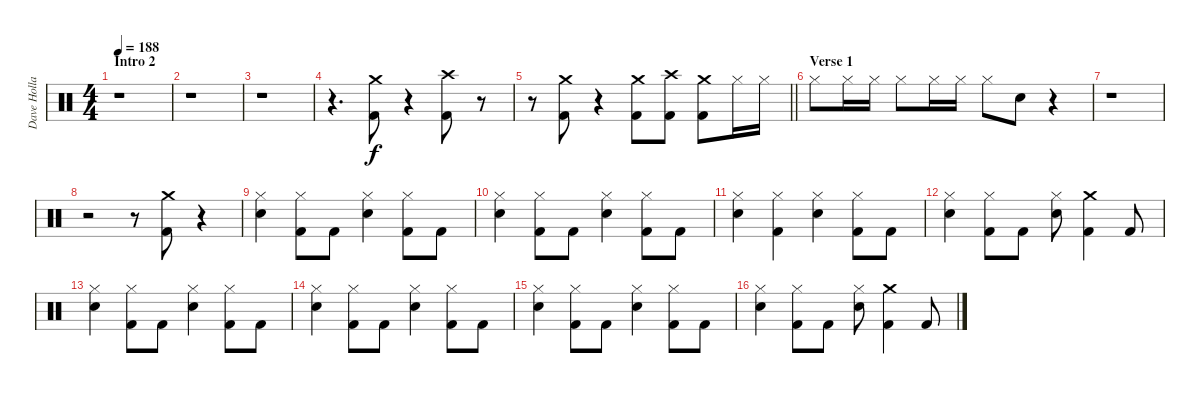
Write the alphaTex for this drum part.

\track ("Dave Holland" "Dave Holla") {instrument percussion}
\staff {score}
\articulation defaults
\ts (4 4)
\section ("" "Intro 2")
\tempo 188
\clef neutral
\ks c
r.1{dy f} |
r.1 |
r.1 |
r.4{d} ("Kick (hit) 2" "Crash medium (hit)").8 r.4 ("Kick (hit) 2" "Crash high (hit)").8 r.8 |
\barLineRight lightlight
r.8 ("Kick (hit) 2" "Crash medium (hit)").8 r.4 ("Kick (hit) 2" "Crash medium (hit)").8 ("Kick (hit) 2" "Crash high (hit)").8 ("Kick (hit) 2" "Crash medium (hit)").8 "Hi-Hat (closed)".16 "Hi-Hat (closed)".16 |
\section ("" "Verse 1")
"Hi-Hat (closed)".8 "Hi-Hat (closed)".16 "Hi-Hat (closed)".16 "Hi-Hat (closed)".8 "Hi-Hat (closed)".16 "Hi-Hat (closed)".16 "Hi-Hat (closed)".8 "Snare (hit) 2".8 r.4 |
r.1 |
r.2 r.8 ("Kick (hit) 2" "Crash medium (hit)").8 r.4 |
("Snare (hit) 2" "Hi-Hat (closed)").4 ("Kick (hit) 2" "Hi-Hat (closed)").8 "Kick (hit) 2".8 ("Snare (hit) 2" "Hi-Hat (closed)").4 ("Kick (hit) 2" "Hi-Hat (closed)").8 "Kick (hit) 2".8 |
("Snare (hit) 2" "Hi-Hat (closed)").4 ("Kick (hit) 2" "Hi-Hat (closed)").8 "Kick (hit) 2".8 ("Snare (hit) 2" "Hi-Hat (closed)").4 ("Kick (hit) 2" "Hi-Hat (closed)").8 "Kick (hit) 2".8 |
("Snare (hit) 2" "Hi-Hat (closed)").4 ("Kick (hit) 2" "Hi-Hat (closed)").4 ("Snare (hit) 2" "Hi-Hat (closed)").4 ("Kick (hit) 2" "Hi-Hat (closed)").8 "Kick (hit) 2".8 |
("Snare (hit) 2" "Hi-Hat (closed)").4 ("Kick (hit) 2" "Hi-Hat (closed)").8 "Kick (hit) 2".8 ("Snare (hit) 2" "Hi-Hat (closed)").8 ("Kick (hit) 2" "Crash medium (hit)").4 "Kick (hit) 2".8 |
("Snare (hit) 2" "Hi-Hat (closed)").4 ("Kick (hit) 2" "Hi-Hat (closed)").8 "Kick (hit) 2".8 ("Snare (hit) 2" "Hi-Hat (closed)").4 ("Kick (hit) 2" "Hi-Hat (closed)").8 "Kick (hit) 2".8 |
("Snare (hit) 2" "Hi-Hat (closed)").4 ("Kick (hit) 2" "Hi-Hat (closed)").8 "Kick (hit) 2".8 ("Snare (hit) 2" "Hi-Hat (closed)").4 ("Kick (hit) 2" "Hi-Hat (closed)").8 "Kick (hit) 2".8 |
("Snare (hit) 2" "Hi-Hat (closed)").4 ("Kick (hit) 2" "Hi-Hat (closed)").8 "Kick (hit) 2".8 ("Snare (hit) 2" "Hi-Hat (closed)").4 ("Kick (hit) 2" "Hi-Hat (closed)").8 "Kick (hit) 2".8 |
("Snare (hit) 2" "Hi-Hat (closed)").4 ("Kick (hit) 2" "Hi-Hat (closed)").8 "Kick (hit) 2".8 ("Snare (hit) 2" "Hi-Hat (closed)").8 ("Kick (hit) 2" "Crash medium (hit)").4 "Kick (hit) 2".8
